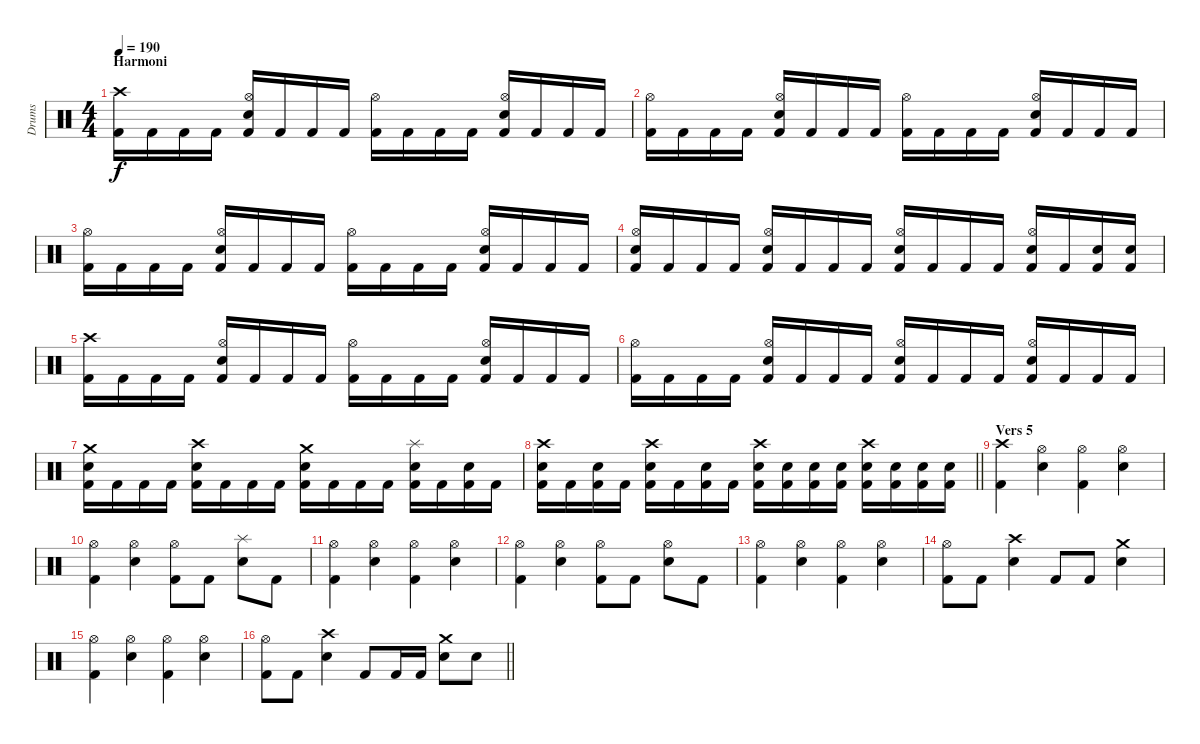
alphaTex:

\track ("Drums" "Drums") {instrument percussion}
\staff {score}
\articulation defaults
\ts (4 4)
\section ("" "Harmoni")
\tempo 190
\clef neutral
\ks c
("Crash high (hit)" "Kick (hit) 2").16{dy f} "Kick (hit) 2".16 "Kick (hit) 2".16 "Kick (hit) 2".16 ("Hi-Hat (open)" "Snare (hit) 2" "Kick (hit) 2").16 "Kick (hit) 2".16 "Kick (hit) 2".16 "Kick (hit) 2".16 ("Hi-Hat (open)" "Kick (hit) 2").16 "Kick (hit) 2".16 "Kick (hit) 2".16 "Kick (hit) 2".16 ("Hi-Hat (open)" "Snare (hit) 2" "Kick (hit) 2").16 "Kick (hit) 2".16 "Kick (hit) 2".16 "Kick (hit) 2".16 |
("Hi-Hat (open)" "Kick (hit) 2").16 "Kick (hit) 2".16 "Kick (hit) 2".16 "Kick (hit) 2".16 ("Hi-Hat (open)" "Snare (hit) 2" "Kick (hit) 2").16 "Kick (hit) 2".16 "Kick (hit) 2".16 "Kick (hit) 2".16 ("Hi-Hat (open)" "Kick (hit) 2").16 "Kick (hit) 2".16 "Kick (hit) 2".16 "Kick (hit) 2".16 ("Hi-Hat (open)" "Snare (hit) 2" "Kick (hit) 2").16 "Kick (hit) 2".16 "Kick (hit) 2".16 "Kick (hit) 2".16 |
("Hi-Hat (open)" "Kick (hit) 2").16 "Kick (hit) 2".16 "Kick (hit) 2".16 "Kick (hit) 2".16 ("Hi-Hat (open)" "Snare (hit) 2" "Kick (hit) 2").16 "Kick (hit) 2".16 "Kick (hit) 2".16 "Kick (hit) 2".16 ("Hi-Hat (open)" "Kick (hit) 2").16 "Kick (hit) 2".16 "Kick (hit) 2".16 "Kick (hit) 2".16 ("Hi-Hat (open)" "Snare (hit) 2" "Kick (hit) 2").16 "Kick (hit) 2".16 "Kick (hit) 2".16 "Kick (hit) 2".16 |
("Hi-Hat (open)" "Snare (hit) 2" "Kick (hit) 2").16 "Kick (hit) 2".16 "Kick (hit) 2".16 "Kick (hit) 2".16 ("Hi-Hat (open)" "Snare (hit) 2" "Kick (hit) 2").16 "Kick (hit) 2".16 "Kick (hit) 2".16 "Kick (hit) 2".16 ("Hi-Hat (open)" "Snare (hit) 2" "Kick (hit) 2").16 "Kick (hit) 2".16 "Kick (hit) 2".16 "Kick (hit) 2".16 ("Hi-Hat (open)" "Snare (hit) 2" "Kick (hit) 2").16 "Kick (hit) 2".16 ("Snare (hit) 2" "Kick (hit) 2").16 ("Snare (hit) 2" "Kick (hit) 2").16 |
("Crash high (hit)" "Kick (hit) 2").16 "Kick (hit) 2".16 "Kick (hit) 2".16 "Kick (hit) 2".16 ("Hi-Hat (open)" "Snare (hit) 2" "Kick (hit) 2").16 "Kick (hit) 2".16 "Kick (hit) 2".16 "Kick (hit) 2".16 ("Hi-Hat (open)" "Kick (hit) 2").16 "Kick (hit) 2".16 "Kick (hit) 2".16 "Kick (hit) 2".16 ("Hi-Hat (open)" "Snare (hit) 2" "Kick (hit) 2").16 "Kick (hit) 2".16 "Kick (hit) 2".16 "Kick (hit) 2".16 |
("Hi-Hat (open)" "Kick (hit) 2").16 "Kick (hit) 2".16 "Kick (hit) 2".16 "Kick (hit) 2".16 ("Hi-Hat (open)" "Snare (hit) 2" "Kick (hit) 2").16 "Kick (hit) 2".16 "Kick (hit) 2".16 "Kick (hit) 2".16 ("Hi-Hat (open)" "Snare (hit) 2" "Kick (hit) 2").16 "Kick (hit) 2".16 "Kick (hit) 2".16 "Kick (hit) 2".16 ("Hi-Hat (open)" "Snare (hit) 2" "Kick (hit) 2").16 "Kick (hit) 2".16 "Kick (hit) 2".16 "Kick (hit) 2".16 |
("Crash medium (hit)" "Snare (hit) 2" "Kick (hit) 2").16 "Kick (hit) 2".16 "Kick (hit) 2".16 "Kick (hit) 2".16 ("Crash high (hit)" "Snare (hit) 2" "Kick (hit) 2").16 "Kick (hit) 2".16 "Kick (hit) 2".16 "Kick (hit) 2".16 ("Crash medium (hit)" "Snare (hit) 2" "Kick (hit) 2").16 "Kick (hit) 2".16 "Kick (hit) 2".16 "Kick (hit) 2".16 ("Splash (hit)" "Snare (hit) 2" "Kick (hit) 2").16 "Kick (hit) 2".16 ("Snare (hit) 2" "Kick (hit) 2").16 "Kick (hit) 2".16 |
\barLineRight lightlight
("Crash high (hit)" "Snare (hit) 2" "Kick (hit) 2").16 "Kick (hit) 2".16 ("Snare (hit) 2" "Kick (hit) 2").16 "Kick (hit) 2".16 ("Crash high (hit)" "Snare (hit) 2" "Kick (hit) 2").16 "Kick (hit) 2".16 ("Snare (hit) 2" "Kick (hit) 2").16 "Kick (hit) 2".16 ("Crash high (hit)" "Snare (hit) 2" "Kick (hit) 2").16 ("Snare (hit) 2" "Kick (hit) 2").16 ("Snare (hit) 2" "Kick (hit) 2").16 ("Snare (hit) 2" "Kick (hit) 2").16 ("Crash high (hit)" "Snare (hit) 2" "Kick (hit) 2").16 ("Snare (hit) 2" "Kick (hit) 2").16 ("Snare (hit) 2" "Kick (hit) 2").16 ("Snare (hit) 2" "Kick (hit) 2").16 |
\section ("" "Vers 5")
("Crash high (hit)" "Kick (hit) 2").4 ("Hi-Hat (open)" "Snare (hit) 2").4 ("Hi-Hat (open)" "Kick (hit) 2").4 ("Hi-Hat (open)" "Snare (hit) 2").4 |
("Hi-Hat (open)" "Kick (hit) 2").4 ("Hi-Hat (open)" "Snare (hit) 2").4 ("Hi-Hat (open)" "Kick (hit) 2").8 "Kick (hit) 2".8 ("Splash (hit)" "Snare (hit) 2").8 "Kick (hit) 2".8 |
("Hi-Hat (open)" "Kick (hit) 2").4 ("Hi-Hat (open)" "Snare (hit) 2").4 ("Hi-Hat (open)" "Kick (hit) 2").4 ("Hi-Hat (open)" "Snare (hit) 2").4 |
("Hi-Hat (open)" "Kick (hit) 2").4 ("Hi-Hat (open)" "Snare (hit) 2").4 ("Hi-Hat (open)" "Kick (hit) 2").8 "Kick (hit) 2".8 ("Hi-Hat (open)" "Snare (hit) 2").8 "Kick (hit) 2".8 |
("Hi-Hat (open)" "Kick (hit) 2").4 ("Hi-Hat (open)" "Snare (hit) 2").4 ("Hi-Hat (open)" "Kick (hit) 2").4 ("Hi-Hat (open)" "Snare (hit) 2").4 |
("Hi-Hat (open)" "Kick (hit) 2").8 "Kick (hit) 2".8 ("Crash high (hit)" "Snare (hit) 2").4 "Kick (hit) 2".8 "Kick (hit) 2".8 ("Crash medium (hit)" "Snare (hit) 2").4 |
("Hi-Hat (open)" "Kick (hit) 2").4 ("Hi-Hat (open)" "Snare (hit) 2").4 ("Hi-Hat (open)" "Kick (hit) 2").4 ("Hi-Hat (open)" "Snare (hit) 2").4 |
\barLineRight lightlight
("Hi-Hat (open)" "Kick (hit) 2").8 "Kick (hit) 2".8 ("Crash high (hit)" "Snare (hit) 2").4 "Kick (hit) 2".8 "Kick (hit) 2".16 "Kick (hit) 2".16 ("Crash medium (hit)" "Snare (hit) 2").8 "Snare (hit) 2".8
